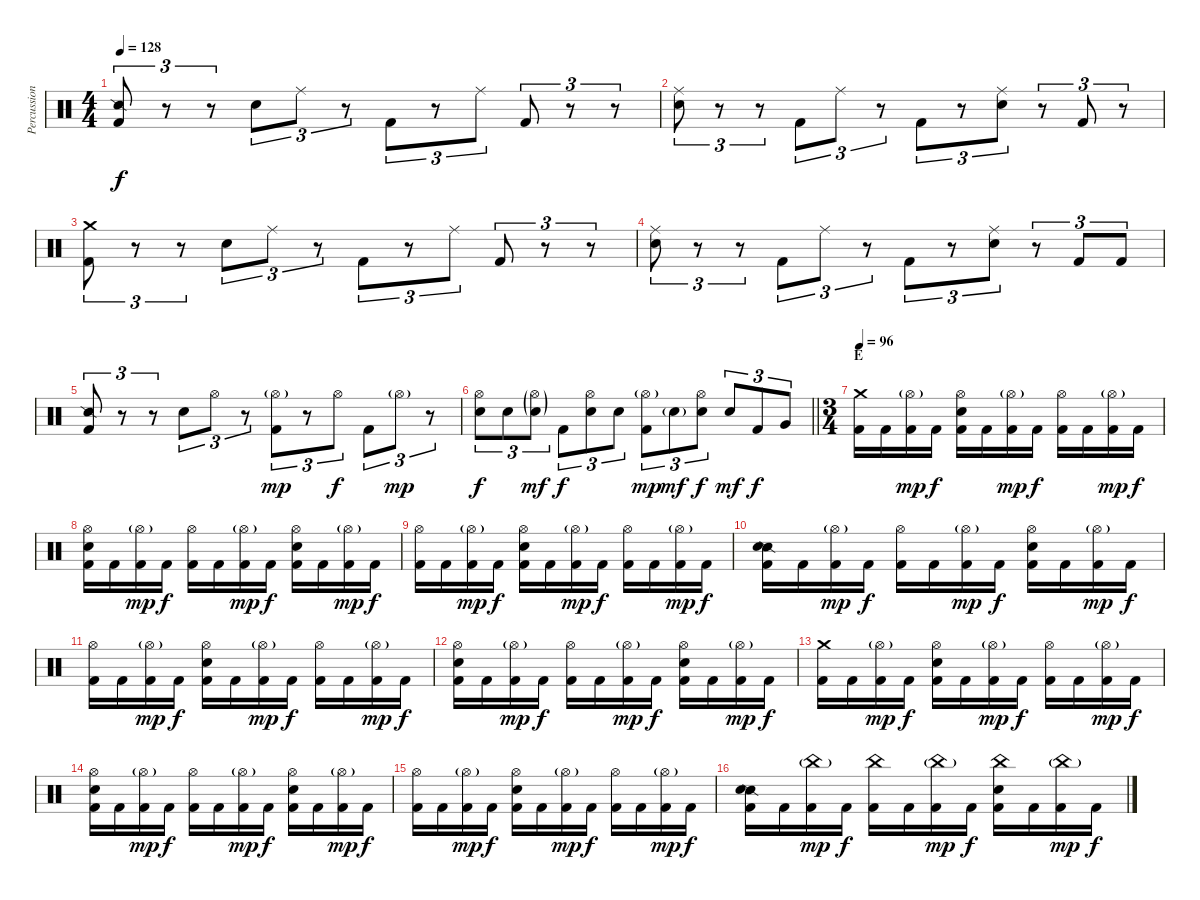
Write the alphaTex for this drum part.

\track ("Percussion" "Percussion") {instrument percussion}
\staff {score}
\articulation defaults
\ts (4 4)
\tempo 128
\clef neutral
\ks c
("Snare (side stick) 2" "Kick (hit) 2").8{tu (3 2) dy f} r.8{tu (3 2)} r.8{tu (3 2)} "Snare (hit) 2".8{tu (3 2)} "Ride (middle)".8{tu (3 2)} r.8{tu (3 2)} "Kick (hit) 2".8{tu (3 2)} r.8{tu (3 2)} "Ride (middle)".8{tu (3 2)} "Kick (hit) 2".8{tu (3 2)} r.8{tu (3 2)} r.8{tu (3 2)} |
("Ride (middle)" "Snare (hit) 2").8{tu (3 2)} r.8{tu (3 2)} r.8{tu (3 2)} "Kick (hit) 2".8{tu (3 2)} "Ride (middle)".8{tu (3 2)} r.8{tu (3 2)} "Kick (hit) 2".8{tu (3 2)} r.8{tu (3 2)} ("Ride (middle)" "Snare (hit) 2").8{tu (3 2)} r.8{tu (3 2)} "Kick (hit) 2".8{tu (3 2)} r.8{tu (3 2)} |
("Crash medium (hit)" "Kick (hit) 2").8{tu (3 2)} r.8{tu (3 2)} r.8{tu (3 2)} "Snare (hit) 2".8{tu (3 2)} "Ride (middle)".8{tu (3 2)} r.8{tu (3 2)} "Kick (hit) 2".8{tu (3 2)} r.8{tu (3 2)} "Ride (middle)".8{tu (3 2)} "Kick (hit) 2".8{tu (3 2)} r.8{tu (3 2)} r.8{tu (3 2)} |
("Ride (middle)" "Snare (hit) 2").8{tu (3 2)} r.8{tu (3 2)} r.8{tu (3 2)} "Kick (hit) 2".8{tu (3 2)} "Ride (middle)".8{tu (3 2)} r.8{tu (3 2)} "Kick (hit) 2".8{tu (3 2)} r.8{tu (3 2)} ("Ride (middle)" "Snare (hit) 2").8{tu (3 2)} r.8{tu (3 2)} "Kick (hit) 2".8{tu (3 2)} "Kick (hit) 2".8{tu (3 2)} |
("Snare (side stick) 2" "Kick (hit) 2").8{tu (3 2)} r.8{tu (3 2)} r.8{tu (3 2)} "Snare (hit) 2".8{tu (3 2)} "Hi-Hat (open)".8{tu (3 2)} r.8{tu (3 2)} ("Hi-Hat (open)"{g} "Kick (hit) 2").8{tu (3 2) dy mp} r.8{tu (3 2)} "Hi-Hat (open)".8{tu (3 2) dy f} "Kick (hit) 2".8{tu (3 2)} "Hi-Hat (open)"{g}.8{tu (3 2) dy mp} r.8{tu (3 2)} |
\barLineRight lightlight
("Hi-Hat (open)" "Snare (hit) 2").8{tu (3 2) dy f} "Snare (hit) 2".8{tu (3 2)} ("Hi-Hat (open)"{g} "Snare (hit) 2"{g}).8{tu (3 2) dy mf} "Kick (hit) 2".8{tu (3 2) dy f} ("Hi-Hat (open)" "Snare (hit) 2").8{tu (3 2)} "Snare (hit) 2".8{tu (3 2)} ("Hi-Hat (open)"{g} "Kick (hit) 2").8{tu (3 2) dy mp} "Snare (hit) 2"{g}.8{tu (3 2) dy mf} ("Hi-Hat (open)" "Snare (hit) 2").8{tu (3 2) dy f} "Snare (hit) 2".8{tu (3 2) dy mf} "Kick (hit) 2".8{tu (3 2) dy f} "Very Low Tom (hit)".8{tu (3 2)} |
\ts (3 4)
\section ("" "E")
\tempo 96
("Crash medium (hit)" "Kick (hit) 2").16 "Kick (hit) 2".16 ("Hi-Hat (open)"{g} "Kick (hit) 2").16{dy mp} "Kick (hit) 2".16{dy f} ("Hi-Hat (open)" "Snare (hit) 2" "Kick (hit) 2").16 "Kick (hit) 2".16 ("Hi-Hat (open)"{g} "Kick (hit) 2").16{dy mp} "Kick (hit) 2".16{dy f} ("Hi-Hat (open)" "Kick (hit) 2").16 "Kick (hit) 2".16 ("Hi-Hat (open)"{g} "Kick (hit) 2").16{dy mp} "Kick (hit) 2".16{dy f} |
("Hi-Hat (open)" "Snare (hit) 2" "Kick (hit) 2").16 "Kick (hit) 2".16 ("Hi-Hat (open)"{g} "Kick (hit) 2").16{dy mp} "Kick (hit) 2".16{dy f} ("Hi-Hat (open)" "Kick (hit) 2").16 "Kick (hit) 2".16 ("Hi-Hat (open)"{g} "Kick (hit) 2").16{dy mp} "Kick (hit) 2".16{dy f} ("Hi-Hat (open)" "Snare (hit) 2" "Kick (hit) 2").16 "Kick (hit) 2".16 ("Hi-Hat (open)"{g} "Kick (hit) 2").16{dy mp} "Kick (hit) 2".16{dy f} |
("Hi-Hat (open)" "Kick (hit) 2").16 "Kick (hit) 2".16 ("Hi-Hat (open)"{g} "Kick (hit) 2").16{dy mp} "Kick (hit) 2".16{dy f} ("Hi-Hat (open)" "Snare (hit) 2" "Kick (hit) 2").16 "Kick (hit) 2".16 ("Hi-Hat (open)"{g} "Kick (hit) 2").16{dy mp} "Kick (hit) 2".16{dy f} ("Hi-Hat (open)" "Kick (hit) 2").16 "Kick (hit) 2".16 ("Hi-Hat (open)"{g} "Kick (hit) 2").16{dy mp} "Kick (hit) 2".16{dy f} |
("Snare (side stick) 2" "Snare (hit) 2" "Kick (hit) 2").16 "Kick (hit) 2".16 ("Hi-Hat (open)"{g} "Kick (hit) 2").16{dy mp} "Kick (hit) 2".16{dy f} ("Hi-Hat (open)" "Kick (hit) 2").16 "Kick (hit) 2".16 ("Hi-Hat (open)"{g} "Kick (hit) 2").16{dy mp} "Kick (hit) 2".16{dy f} ("Hi-Hat (open)" "Snare (hit) 2" "Kick (hit) 2").16 "Kick (hit) 2".16 ("Hi-Hat (open)"{g} "Kick (hit) 2").16{dy mp} "Kick (hit) 2".16{dy f} |
("Hi-Hat (open)" "Kick (hit) 2").16 "Kick (hit) 2".16 ("Hi-Hat (open)"{g} "Kick (hit) 2").16{dy mp} "Kick (hit) 2".16{dy f} ("Hi-Hat (open)" "Snare (hit) 2" "Kick (hit) 2").16 "Kick (hit) 2".16 ("Hi-Hat (open)"{g} "Kick (hit) 2").16{dy mp} "Kick (hit) 2".16{dy f} ("Hi-Hat (open)" "Kick (hit) 2").16 "Kick (hit) 2".16 ("Hi-Hat (open)"{g} "Kick (hit) 2").16{dy mp} "Kick (hit) 2".16{dy f} |
("Hi-Hat (open)" "Snare (hit) 2" "Kick (hit) 2").16 "Kick (hit) 2".16 ("Hi-Hat (open)"{g} "Kick (hit) 2").16{dy mp} "Kick (hit) 2".16{dy f} ("Hi-Hat (open)" "Kick (hit) 2").16 "Kick (hit) 2".16 ("Hi-Hat (open)"{g} "Kick (hit) 2").16{dy mp} "Kick (hit) 2".16{dy f} ("Hi-Hat (open)" "Snare (hit) 2" "Kick (hit) 2").16 "Kick (hit) 2".16 ("Hi-Hat (open)"{g} "Kick (hit) 2").16{dy mp} "Kick (hit) 2".16{dy f} |
("Crash medium (hit)" "Kick (hit) 2").16 "Kick (hit) 2".16 ("Hi-Hat (open)"{g} "Kick (hit) 2").16{dy mp} "Kick (hit) 2".16{dy f} ("Hi-Hat (open)" "Snare (hit) 2" "Kick (hit) 2").16 "Kick (hit) 2".16 ("Hi-Hat (open)"{g} "Kick (hit) 2").16{dy mp} "Kick (hit) 2".16{dy f} ("Hi-Hat (open)" "Kick (hit) 2").16 "Kick (hit) 2".16 ("Hi-Hat (open)"{g} "Kick (hit) 2").16{dy mp} "Kick (hit) 2".16{dy f} |
("Hi-Hat (open)" "Snare (hit) 2" "Kick (hit) 2").16 "Kick (hit) 2".16 ("Hi-Hat (open)"{g} "Kick (hit) 2").16{dy mp} "Kick (hit) 2".16{dy f} ("Hi-Hat (open)" "Kick (hit) 2").16 "Kick (hit) 2".16 ("Hi-Hat (open)"{g} "Kick (hit) 2").16{dy mp} "Kick (hit) 2".16{dy f} ("Hi-Hat (open)" "Snare (hit) 2" "Kick (hit) 2").16 "Kick (hit) 2".16 ("Hi-Hat (open)"{g} "Kick (hit) 2").16{dy mp} "Kick (hit) 2".16{dy f} |
("Hi-Hat (open)" "Kick (hit) 2").16 "Kick (hit) 2".16 ("Hi-Hat (open)"{g} "Kick (hit) 2").16{dy mp} "Kick (hit) 2".16{dy f} ("Hi-Hat (open)" "Snare (hit) 2" "Kick (hit) 2").16 "Kick (hit) 2".16 ("Hi-Hat (open)"{g} "Kick (hit) 2").16{dy mp} "Kick (hit) 2".16{dy f} ("Hi-Hat (open)" "Kick (hit) 2").16 "Kick (hit) 2".16 ("Hi-Hat (open)"{g} "Kick (hit) 2").16{dy mp} "Kick (hit) 2".16{dy f} |
("Snare (side stick) 2" "Snare (hit) 2" "Kick (hit) 2").16 "Kick (hit) 2".16 ("China (hit)"{g} "Kick (hit) 2").16{dy mp} "Kick (hit) 2".16{dy f} ("China (hit)" "Kick (hit) 2").16 "Kick (hit) 2".16 ("China (hit)"{g} "Kick (hit) 2").16{dy mp} "Kick (hit) 2".16{dy f} ("China (hit)" "Snare (hit) 2" "Kick (hit) 2").16 "Kick (hit) 2".16 ("China (hit)"{g} "Kick (hit) 2").16{dy mp} "Kick (hit) 2".16{dy f}
